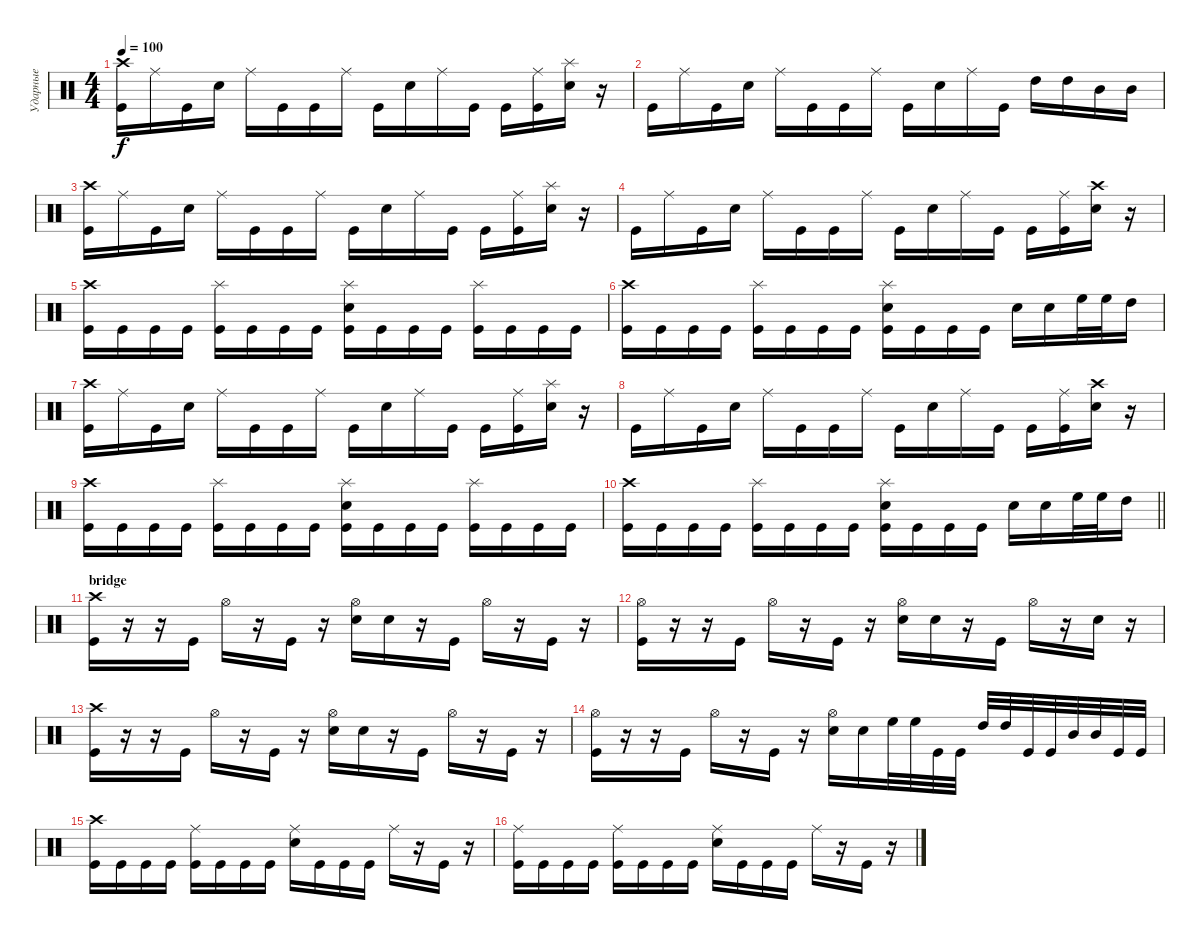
\track ("Ударные" "Ударные") {instrument percussion}
\staff {score}
\articulation defaults
\ts (4 4)
\tempo 100
\clef neutral
\ks c
("Kick (hit)" "Crash high (hit)").16{dy f} "Ride (middle)".16 "Kick (hit)".16 "Snare (hit) 2".16 "Ride (middle)".16 "Kick (hit)".16 "Kick (hit)".16 "Ride (middle)".16 "Kick (hit)".16 "Snare (hit) 2".16 "Ride (middle)".16 "Kick (hit)".16 "Kick (hit)".16 ("Kick (hit)" "Ride (middle)").16 ("Snare (hit) 2" "Splash (hit)").16 r.16 |
"Kick (hit)".16 "Ride (middle)".16 "Kick (hit)".16 "Snare (hit) 2".16 "Ride (middle)".16 "Kick (hit)".16 "Kick (hit)".16 "Ride (middle)".16 "Kick (hit)".16 "Snare (hit) 2".16 "Ride (middle)".16 "Kick (hit)".16 "High Tom (hit)".16 "High Tom (hit)".16 "Mid Tom (hit)".16 "Mid Tom (hit)".16 |
("Kick (hit)" "Crash high (hit)").16 "Ride (middle)".16 "Kick (hit)".16 "Snare (hit) 2".16 "Ride (middle)".16 "Kick (hit)".16 "Kick (hit)".16 "Ride (middle)".16 "Kick (hit)".16 "Snare (hit) 2".16 "Ride (middle)".16 "Kick (hit)".16 "Kick (hit)".16 ("Kick (hit)" "Ride (middle)").16 ("Snare (hit) 2" "Splash (hit)").16 r.16 |
"Kick (hit)".16 "Ride (middle)".16 "Kick (hit)".16 "Snare (hit) 2".16 "Ride (middle)".16 "Kick (hit)".16 "Kick (hit)".16 "Ride (middle)".16 "Kick (hit)".16 "Snare (hit) 2".16 "Ride (middle)".16 "Kick (hit)".16 "Kick (hit)".16 ("Kick (hit)" "Ride (middle)").16 ("Snare (hit) 2" "Crash high (hit)").16 r.16 |
("Kick (hit)" "Crash high (hit)").16 "Kick (hit)".16 "Kick (hit)".16 "Kick (hit)".16 ("Kick (hit)" "Splash (hit)").16 "Kick (hit)".16 "Kick (hit)".16 "Kick (hit)".16 ("Kick (hit)" "Snare (hit) 2" "Splash (hit)").16 "Kick (hit)".16 "Kick (hit)".16 "Kick (hit)".16 ("Kick (hit)" "Splash (hit)").16 "Kick (hit)".16 "Kick (hit)".16 "Kick (hit)".16 |
("Kick (hit)" "Crash high (hit)").16 "Kick (hit)".16 "Kick (hit)".16 "Kick (hit)".16 ("Kick (hit)" "Splash (hit)").16 "Kick (hit)".16 "Kick (hit)".16 "Kick (hit)".16 ("Kick (hit)" "Snare (hit) 2" "Splash (hit)").16 "Kick (hit)".16 "Kick (hit)".16 "Kick (hit)".16 "Snare (hit) 2".16 "Snare (hit) 2".16 "High Floor Tom (hit)".32 "High Floor Tom (hit)".32 "High Tom (hit)".16 |
("Kick (hit)" "Crash high (hit)").16 "Ride (middle)".16 "Kick (hit)".16 "Snare (hit) 2".16 "Ride (middle)".16 "Kick (hit)".16 "Kick (hit)".16 "Ride (middle)".16 "Kick (hit)".16 "Snare (hit) 2".16 "Ride (middle)".16 "Kick (hit)".16 "Kick (hit)".16 ("Kick (hit)" "Ride (middle)").16 ("Snare (hit) 2" "Splash (hit)").16 r.16 |
"Kick (hit)".16 "Ride (middle)".16 "Kick (hit)".16 "Snare (hit) 2".16 "Ride (middle)".16 "Kick (hit)".16 "Kick (hit)".16 "Ride (middle)".16 "Kick (hit)".16 "Snare (hit) 2".16 "Ride (middle)".16 "Kick (hit)".16 "Kick (hit)".16 ("Kick (hit)" "Ride (middle)").16 ("Snare (hit) 2" "Crash high (hit)").16 r.16 |
("Kick (hit)" "Crash high (hit)").16 "Kick (hit)".16 "Kick (hit)".16 "Kick (hit)".16 ("Kick (hit)" "Splash (hit)").16 "Kick (hit)".16 "Kick (hit)".16 "Kick (hit)".16 ("Kick (hit)" "Snare (hit) 2" "Splash (hit)").16 "Kick (hit)".16 "Kick (hit)".16 "Kick (hit)".16 ("Kick (hit)" "Splash (hit)").16 "Kick (hit)".16 "Kick (hit)".16 "Kick (hit)".16 |
\barLineRight lightlight
("Kick (hit)" "Crash high (hit)").16 "Kick (hit)".16 "Kick (hit)".16 "Kick (hit)".16 ("Kick (hit)" "Splash (hit)").16 "Kick (hit)".16 "Kick (hit)".16 "Kick (hit)".16 ("Kick (hit)" "Snare (hit) 2" "Splash (hit)").16 "Kick (hit)".16 "Kick (hit)".16 "Kick (hit)".16 "Snare (hit) 2".16 "Snare (hit) 2".16 "High Floor Tom (hit)".32 "High Floor Tom (hit)".32 "High Tom (hit)".16 |
\section ("" "bridge")
("Kick (hit)" "Crash high (hit)").16 r.16 r.16 "Kick (hit)".16 "Hi-Hat (open)".16 r.16 "Kick (hit)".16 r.16 ("Snare (hit) 2" "Hi-Hat (open)").16 "Snare (hit) 2".16 r.16 "Kick (hit)".16 "Hi-Hat (open)".16 r.16 "Kick (hit)".16 r.16 |
("Hi-Hat (open)" "Kick (hit)").16 r.16 r.16 "Kick (hit)".16 "Hi-Hat (open)".16 r.16 "Kick (hit)".16 r.16 ("Snare (hit) 2" "Hi-Hat (open)").16 "Snare (hit) 2".16 r.16 "Kick (hit)".16 "Hi-Hat (open)".16 r.16 "Snare (hit) 2".16 r.16 |
("Kick (hit)" "Crash high (hit)").16 r.16 r.16 "Kick (hit)".16 "Hi-Hat (open)".16 r.16 "Kick (hit)".16 r.16 ("Snare (hit) 2" "Hi-Hat (open)").16 "Snare (hit) 2".16 r.16 "Kick (hit)".16 "Hi-Hat (open)".16 r.16 "Kick (hit)".16 r.16 |
("Hi-Hat (open)" "Kick (hit)").16 r.16 r.16 "Kick (hit)".16 "Hi-Hat (open)".16 r.16 "Kick (hit)".16 r.16 ("Snare (hit) 2" "Hi-Hat (open)").16 "Snare (hit) 2".16 "High Floor Tom (hit)".32 "High Floor Tom (hit)".32 "Kick (hit)".32 "Kick (hit)".32 "High Tom (hit)".32 "High Tom (hit)".32 "Kick (hit)".32 "Kick (hit)".32 "Mid Tom (hit)".32 "Mid Tom (hit)".32 "Kick (hit)".32 "Kick (hit)".32 |
("Crash high (hit)" "Kick (hit)").16 "Kick (hit)".16 "Kick (hit)".16 "Kick (hit)".16 ("Kick (hit)" "Ride (middle)").16 "Kick (hit)".16 "Kick (hit)".16 "Kick (hit)".16 ("Snare (hit) 2" "Ride (middle)").16 "Kick (hit)".16 "Kick (hit)".16 "Kick (hit)".16 "Ride (middle)".16 r.16 "Kick (hit)".16 r.16 |
("Ride (middle)" "Kick (hit)").16 "Kick (hit)".16 "Kick (hit)".16 "Kick (hit)".16 ("Kick (hit)" "Ride (middle)").16 "Kick (hit)".16 "Kick (hit)".16 "Kick (hit)".16 ("Snare (hit) 2" "Ride (middle)").16 "Kick (hit)".16 "Kick (hit)".16 "Kick (hit)".16 "Ride (middle)".16 r.16 "Kick (hit)".16 r.16
